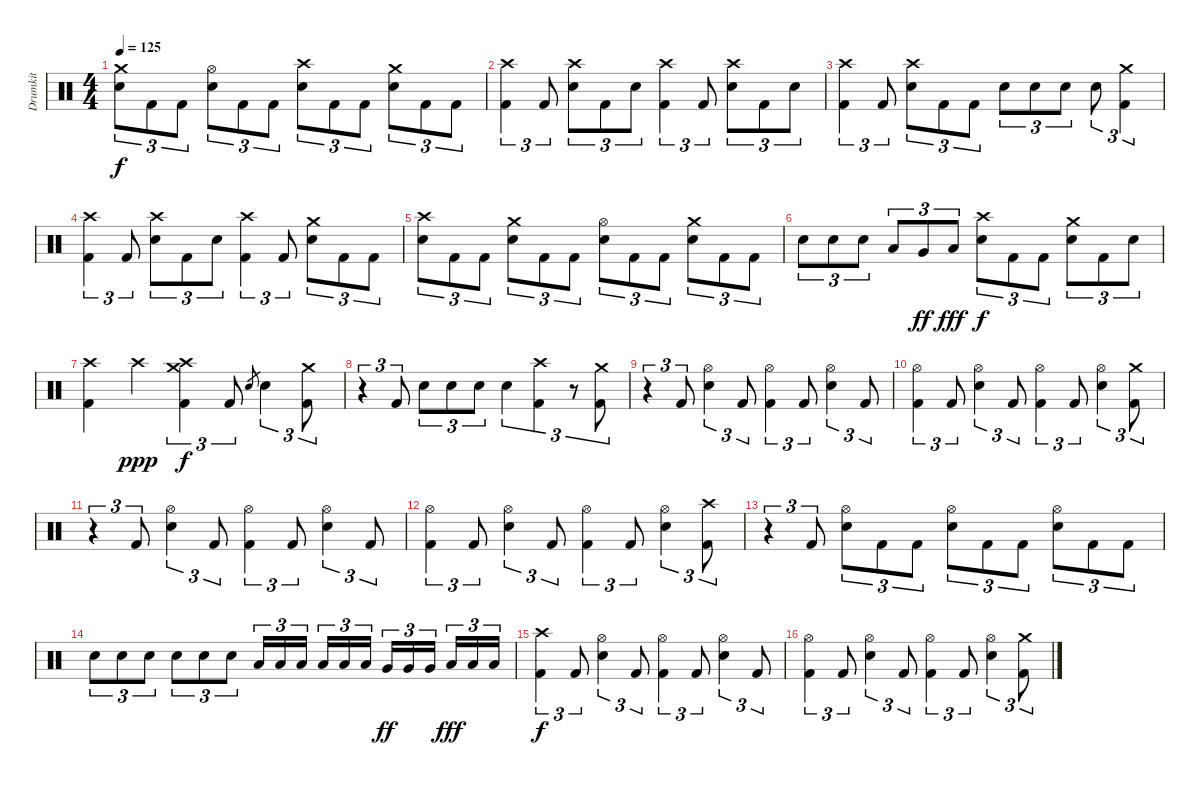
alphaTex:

\track ("Drumkit" "Drumkit") {instrument percussion}
\staff {score}
\articulation defaults
\ts (4 4)
\tempo 125
\clef neutral
\ks c
("Crash medium (hit)" "Electric Snare (hit)").8{tu (3 2) dy f} "Kick (hit) 2".8{tu (3 2)} "Kick (hit) 2".8{tu (3 2)} ("Hi-Hat (open)" "Electric Snare (hit)").8{tu (3 2)} "Kick (hit) 2".8{tu (3 2)} "Kick (hit) 2".8{tu (3 2)} ("Crash high (hit)" "Electric Snare (hit)").8{tu (3 2)} "Kick (hit) 2".8{tu (3 2)} "Kick (hit) 2".8{tu (3 2)} ("Crash medium (hit)" "Electric Snare (hit)").8{tu (3 2)} "Kick (hit) 2".8{tu (3 2)} "Kick (hit) 2".8{tu (3 2)} |
("Crash high (hit)" "Kick (hit) 2").4{tu (3 2)} "Kick (hit) 2".8{tu (3 2)} ("Crash high (hit)" "Electric Snare (hit)").8{tu (3 2)} "Kick (hit) 2".8{tu (3 2)} "Electric Snare (hit)".8{tu (3 2)} ("Crash high (hit)" "Kick (hit) 2").4{tu (3 2)} "Kick (hit) 2".8{tu (3 2)} ("Crash high (hit)" "Electric Snare (hit)").8{tu (3 2)} "Kick (hit) 2".8{tu (3 2)} "Electric Snare (hit)".8{tu (3 2)} |
("Crash high (hit)" "Kick (hit) 2").4{tu (3 2)} "Kick (hit) 2".8{tu (3 2)} ("Crash high (hit)" "Electric Snare (hit)").8{tu (3 2)} "Kick (hit) 2".8{tu (3 2)} "Kick (hit) 2".8{tu (3 2)} "Electric Snare (hit)".8{tu (3 2)} "Electric Snare (hit)".8{tu (3 2)} "Electric Snare (hit)".8{tu (3 2)} "Electric Snare (hit)".8{tu (3 2)} ("Crash medium (hit)" "Kick (hit) 2").4{tu (3 2)} |
("Crash high (hit)" "Kick (hit) 2").4{tu (3 2)} "Kick (hit) 2".8{tu (3 2)} ("Crash high (hit)" "Electric Snare (hit)").8{tu (3 2)} "Kick (hit) 2".8{tu (3 2)} "Electric Snare (hit)".8{tu (3 2)} ("Crash high (hit)" "Kick (hit) 2").4{tu (3 2)} "Kick (hit) 2".8{tu (3 2)} ("Crash medium (hit)" "Electric Snare (hit)").8{tu (3 2)} "Kick (hit) 2".8{tu (3 2)} "Kick (hit) 2".8{tu (3 2)} |
("Crash high (hit)" "Electric Snare (hit)").8{tu (3 2)} "Kick (hit) 2".8{tu (3 2)} "Kick (hit) 2".8{tu (3 2)} ("Crash medium (hit)" "Electric Snare (hit)").8{tu (3 2)} "Kick (hit) 2".8{tu (3 2)} "Kick (hit) 2".8{tu (3 2)} ("Hi-Hat (open)" "Electric Snare (hit)").8{tu (3 2)} "Kick (hit) 2".8{tu (3 2)} "Kick (hit) 2".8{tu (3 2)} ("Crash medium (hit)" "Electric Snare (hit)").8{tu (3 2)} "Kick (hit) 2".8{tu (3 2)} "Kick (hit) 2".8{tu (3 2)} |
"Electric Snare (hit)".8{tu (3 2)} "Electric Snare (hit)".8{tu (3 2)} "Electric Snare (hit)".8{tu (3 2)} "Low Tom (hit)".8{tu (3 2)} "Very Low Tom (hit)".8{tu (3 2) dy ff} "Low Floor Tom (hit)".8{tu (3 2) dy fff} ("Crash high (hit)" "Electric Snare (hit)").8{tu (3 2) dy f} "Kick (hit) 2".8{tu (3 2)} "Kick (hit) 2".8{tu (3 2)} ("Crash medium (hit)" "Electric Snare (hit)").8{tu (3 2)} "Kick (hit) 2".8{tu (3 2)} "Electric Snare (hit)".8{tu (3 2)} |
("Crash high (hit)" "Kick (hit) 2").4 "Crash high (hit)".4{dy ppp} ("Crash high (hit)" "Crash medium (hit)" "Kick (hit) 2").4{tu (3 2) dy f} "Kick (hit) 2".8{tu (3 2)} "Electric Snare (hit)".8{gr} "Electric Snare (hit)".4{tu (3 2)} ("Crash medium (hit)" "Kick (hit) 2").8{tu (3 2)} |
r.4{tu (3 2)} "Kick (hit) 2".8{tu (3 2)} "Electric Snare (hit)".8{tu (3 2)} "Electric Snare (hit)".8{tu (3 2)} "Electric Snare (hit)".8{tu (3 2)} "Electric Snare (hit)".4{tu (3 2)} ("Crash high (hit)" "Kick (hit) 2").4{tu (3 2)} r.8{tu (3 2)} ("Crash medium (hit)" "Kick (hit) 2").8{tu (3 2)} |
r.4{tu (3 2)} "Kick (hit) 2".8{tu (3 2)} ("Hi-Hat (open)" "Electric Snare (hit)").4{tu (3 2)} "Kick (hit) 2".8{tu (3 2)} ("Hi-Hat (open)" "Kick (hit) 2").4{tu (3 2)} "Kick (hit) 2".8{tu (3 2)} ("Hi-Hat (open)" "Electric Snare (hit)").4{tu (3 2)} "Kick (hit) 2".8{tu (3 2)} |
("Hi-Hat (open)" "Kick (hit) 2").4{tu (3 2)} "Kick (hit) 2".8{tu (3 2)} ("Hi-Hat (open)" "Electric Snare (hit)").4{tu (3 2)} "Kick (hit) 2".8{tu (3 2)} ("Hi-Hat (open)" "Kick (hit) 2").4{tu (3 2)} "Kick (hit) 2".8{tu (3 2)} ("Hi-Hat (open)" "Electric Snare (hit)").4{tu (3 2)} ("Crash medium (hit)" "Kick (hit) 2").8{tu (3 2)} |
r.4{tu (3 2)} "Kick (hit) 2".8{tu (3 2)} ("Hi-Hat (open)" "Electric Snare (hit)").4{tu (3 2)} "Kick (hit) 2".8{tu (3 2)} ("Hi-Hat (open)" "Kick (hit) 2").4{tu (3 2)} "Kick (hit) 2".8{tu (3 2)} ("Hi-Hat (open)" "Electric Snare (hit)").4{tu (3 2)} "Kick (hit) 2".8{tu (3 2)} |
("Hi-Hat (open)" "Kick (hit) 2").4{tu (3 2)} "Kick (hit) 2".8{tu (3 2)} ("Hi-Hat (open)" "Electric Snare (hit)").4{tu (3 2)} "Kick (hit) 2".8{tu (3 2)} ("Hi-Hat (open)" "Kick (hit) 2").4{tu (3 2)} "Kick (hit) 2".8{tu (3 2)} ("Hi-Hat (open)" "Electric Snare (hit)").4{tu (3 2)} ("Crash high (hit)" "Kick (hit) 2").8{tu (3 2)} |
r.4{tu (3 2)} "Kick (hit) 2".8{tu (3 2)} ("Hi-Hat (open)" "Electric Snare (hit)").8{tu (3 2)} "Kick (hit) 2".8{tu (3 2)} "Kick (hit) 2".8{tu (3 2)} ("Hi-Hat (open)" "Electric Snare (hit)").8{tu (3 2)} "Kick (hit) 2".8{tu (3 2)} "Kick (hit) 2".8{tu (3 2)} ("Hi-Hat (open)" "Electric Snare (hit)").8{tu (3 2)} "Kick (hit) 2".8{tu (3 2)} "Kick (hit) 2".8{tu (3 2)} |
"Electric Snare (hit)".8{tu (3 2)} "Electric Snare (hit)".8{tu (3 2)} "Electric Snare (hit)".8{tu (3 2)} "Electric Snare (hit)".8{tu (3 2)} "Electric Snare (hit)".8{tu (3 2)} "Electric Snare (hit)".8{tu (3 2)} "Low Tom (hit)".16{tu (3 2)} "Low Tom (hit)".16{tu (3 2)} "Low Tom (hit)".16{tu (3 2) beam splitsecondary} "Low Tom (hit)".16{tu (3 2)} "Low Tom (hit)".16{tu (3 2)} "Low Tom (hit)".16{tu (3 2)} "Very Low Tom (hit)".16{tu (3 2) dy ff} "Very Low Tom (hit)".16{tu (3 2)} "Very Low Tom (hit)".16{tu (3 2) beam splitsecondary} "Low Floor Tom (hit)".16{tu (3 2) dy fff} "Low Floor Tom (hit)".16{tu (3 2)} "Low Floor Tom (hit)".16{tu (3 2)} |
("Crash high (hit)" "Kick (hit) 2").4{tu (3 2) dy f} "Kick (hit) 2".8{tu (3 2)} ("Hi-Hat (open)" "Electric Snare (hit)").4{tu (3 2)} "Kick (hit) 2".8{tu (3 2)} ("Hi-Hat (open)" "Kick (hit) 2").4{tu (3 2)} "Kick (hit) 2".8{tu (3 2)} ("Hi-Hat (open)" "Electric Snare (hit)").4{tu (3 2)} "Kick (hit) 2".8{tu (3 2)} |
("Hi-Hat (open)" "Kick (hit) 2").4{tu (3 2)} "Kick (hit) 2".8{tu (3 2)} ("Hi-Hat (open)" "Electric Snare (hit)").4{tu (3 2)} "Kick (hit) 2".8{tu (3 2)} ("Hi-Hat (open)" "Kick (hit) 2").4{tu (3 2)} "Kick (hit) 2".8{tu (3 2)} ("Hi-Hat (open)" "Electric Snare (hit)").4{tu (3 2)} ("Crash medium (hit)" "Kick (hit) 2").8{tu (3 2)}
